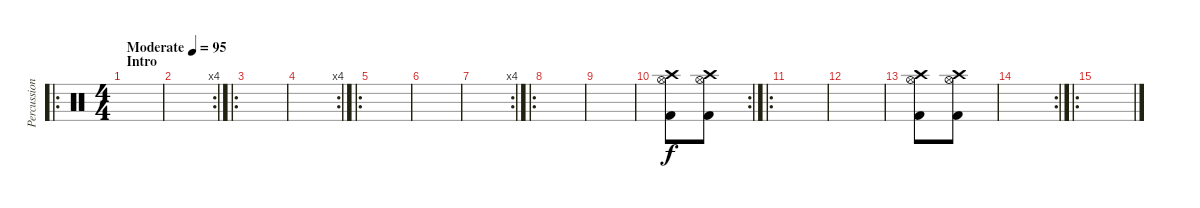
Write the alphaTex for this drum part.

\track ("Percussion" "Percussion") {instrument percussion}
\staff {score}
\articulation defaults
\ro
\ts (4 4)
\section ("" "Intro")
\tempo (95 "Moderate")
\clef neutral
\ks c
|
\rc 4
|
\ro
|
\rc 4
|
\ro
|
|
\rc 4
|
\ro
|
|
\rc 2
("Crash high (hit)" "Hi-Hat (open)" "Kick (hit) 2").8 ("Crash high (hit)" "Hi-Hat (open)" "Kick (hit) 2").8 |
\ro
|
|
("Crash high (hit)" "Hi-Hat (open)" "Kick (hit) 2").8 ("Crash high (hit)" "Hi-Hat (open)" "Kick (hit) 2").8 |
\rc 2
|
\ro
